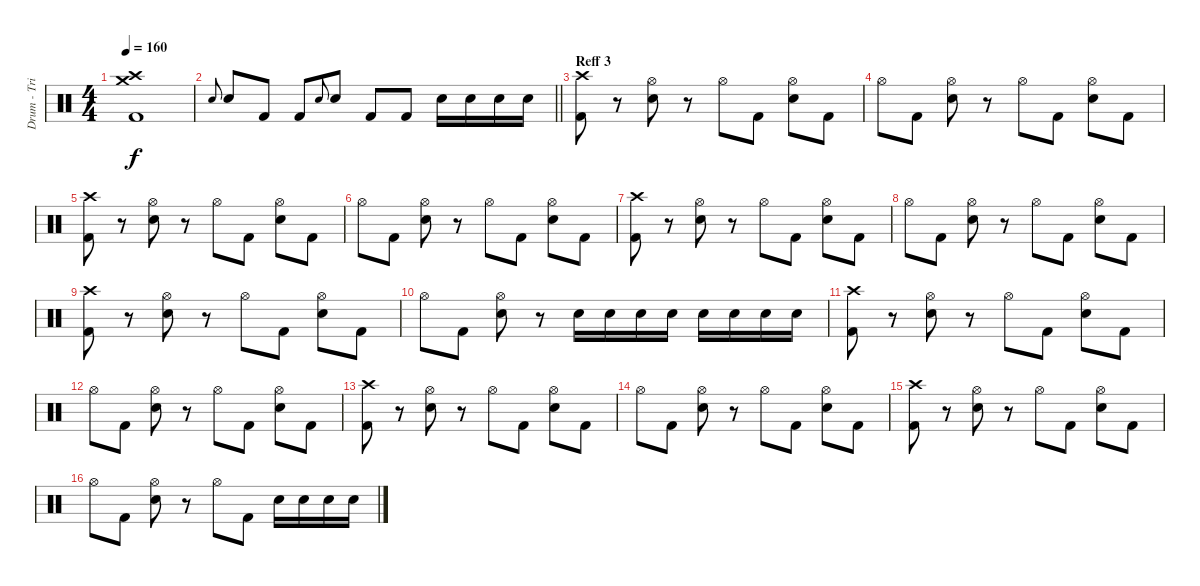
\track ("Drum - Trian" "Drum - Tri") {instrument percussion}
\staff {score}
\articulation defaults
\ts (4 4)
\tempo 160
\clef neutral
\ks c
("Crash high (hit)" "Crash medium (hit)" "Kick (hit) 2").1{dy f} |
\barLineRight lightlight "Electric Snare (hit)".8{gr onbeat} "Electric Snare (hit)".8 "Kick (hit) 2".8 "Kick (hit) 2".8 "Electric Snare (hit)".8{gr onbeat} "Electric Snare (hit)".8 "Kick (hit) 2".8 "Kick (hit) 2".8 "Electric Snare (hit)".16 "Electric Snare (hit)".16 "Electric Snare (hit)".16 "Electric Snare (hit)".16
|
\section ("" "Reff 3")
("Crash high (hit)" "Kick (hit) 2").8 r.8 ("Hi-Hat (open)" "Electric Snare (hit)").8 r.8 "Hi-Hat (open)".8 "Kick (hit) 2".8 ("Hi-Hat (open)" "Electric Snare (hit)").8 "Kick (hit) 2".8 |
"Hi-Hat (open)".8 "Kick (hit) 2".8 ("Hi-Hat (open)" "Electric Snare (hit)").8 r.8 "Hi-Hat (open)".8 "Kick (hit) 2".8 ("Hi-Hat (open)" "Electric Snare (hit)").8 "Kick (hit) 2".8 |
("Crash high (hit)" "Kick (hit) 2").8 r.8 ("Hi-Hat (open)" "Electric Snare (hit)").8 r.8 "Hi-Hat (open)".8 "Kick (hit) 2".8 ("Hi-Hat (open)" "Electric Snare (hit)").8 "Kick (hit) 2".8 |
"Hi-Hat (open)".8 "Kick (hit) 2".8 ("Hi-Hat (open)" "Electric Snare (hit)").8 r.8 "Hi-Hat (open)".8 "Kick (hit) 2".8 ("Hi-Hat (open)" "Electric Snare (hit)").8 "Kick (hit) 2".8 |
("Crash high (hit)" "Kick (hit) 2").8 r.8 ("Hi-Hat (open)" "Electric Snare (hit)").8 r.8 "Hi-Hat (open)".8 "Kick (hit) 2".8 ("Hi-Hat (open)" "Electric Snare (hit)").8 "Kick (hit) 2".8 |
"Hi-Hat (open)".8 "Kick (hit) 2".8 ("Hi-Hat (open)" "Electric Snare (hit)").8 r.8 "Hi-Hat (open)".8 "Kick (hit) 2".8 ("Hi-Hat (open)" "Electric Snare (hit)").8 "Kick (hit) 2".8 |
("Crash high (hit)" "Kick (hit) 2").8 r.8 ("Hi-Hat (open)" "Electric Snare (hit)").8 r.8 "Hi-Hat (open)".8 "Kick (hit) 2".8 ("Hi-Hat (open)" "Electric Snare (hit)").8 "Kick (hit) 2".8 |
"Hi-Hat (open)".8 "Kick (hit) 2".8 ("Hi-Hat (open)" "Electric Snare (hit)").8 r.8 "Electric Snare (hit)".16 "Electric Snare (hit)".16 "Electric Snare (hit)".16 "Electric Snare (hit)".16 "Electric Snare (hit)".16 "Electric Snare (hit)".16 "Electric Snare (hit)".16 "Electric Snare (hit)".16 |
("Crash high (hit)" "Kick (hit) 2").8 r.8 ("Hi-Hat (open)" "Electric Snare (hit)").8 r.8 "Hi-Hat (open)".8 "Kick (hit) 2".8 ("Hi-Hat (open)" "Electric Snare (hit)").8 "Kick (hit) 2".8 |
"Hi-Hat (open)".8 "Kick (hit) 2".8 ("Hi-Hat (open)" "Electric Snare (hit)").8 r.8 "Hi-Hat (open)".8 "Kick (hit) 2".8 ("Hi-Hat (open)" "Electric Snare (hit)").8 "Kick (hit) 2".8 |
("Crash high (hit)" "Kick (hit) 2").8 r.8 ("Hi-Hat (open)" "Electric Snare (hit)").8 r.8 "Hi-Hat (open)".8 "Kick (hit) 2".8 ("Hi-Hat (open)" "Electric Snare (hit)").8 "Kick (hit) 2".8 |
"Hi-Hat (open)".8 "Kick (hit) 2".8 ("Hi-Hat (open)" "Electric Snare (hit)").8 r.8 "Hi-Hat (open)".8 "Kick (hit) 2".8 ("Hi-Hat (open)" "Electric Snare (hit)").8 "Kick (hit) 2".8 |
("Crash high (hit)" "Kick (hit) 2").8 r.8 ("Hi-Hat (open)" "Electric Snare (hit)").8 r.8 "Hi-Hat (open)".8 "Kick (hit) 2".8 ("Hi-Hat (open)" "Electric Snare (hit)").8 "Kick (hit) 2".8 |
"Hi-Hat (open)".8 "Kick (hit) 2".8 ("Hi-Hat (open)" "Electric Snare (hit)").8 r.8 "Hi-Hat (open)".8 "Kick (hit) 2".8 "Electric Snare (hit)".16 "Electric Snare (hit)".16 "Electric Snare (hit)".16 "Electric Snare (hit)".16
